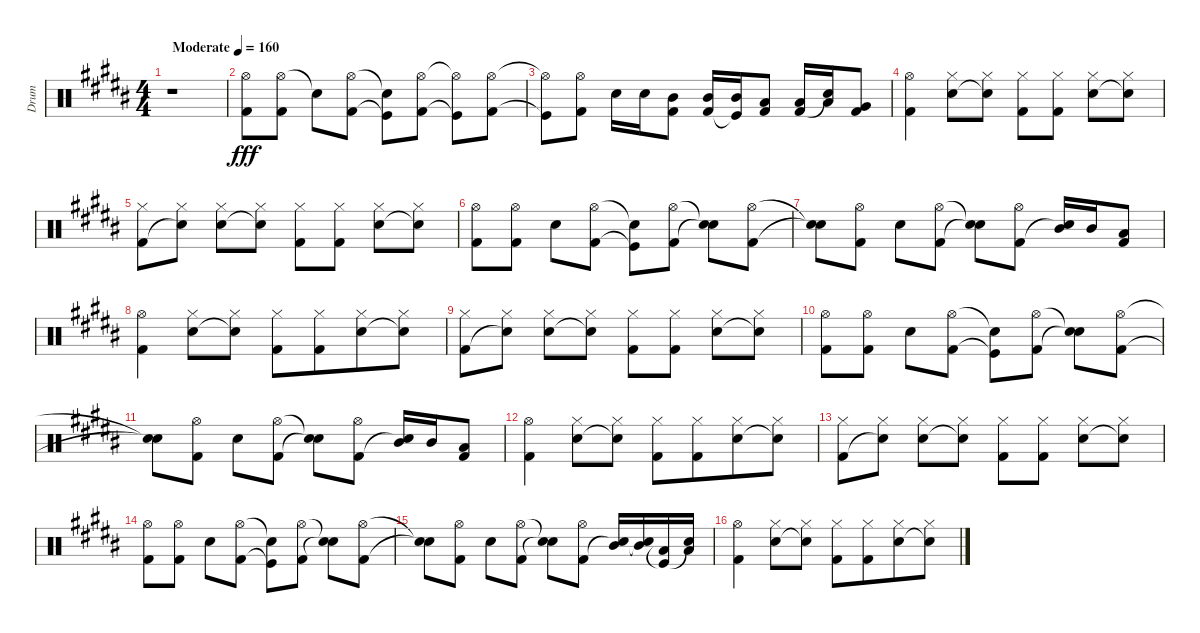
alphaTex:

\track ("Drum" "Drum") {instrument percussion}
\staff {score}
\articulation defaults
\ts (4 4)
\tempo (160 "Moderate")
\clef neutral
\ks b
r.1{dy fff} |
("Hi-Hat (open)" "Kick (hit) 2").8 ("Hi-Hat (open)" "Kick (hit) 2").8 "Snare (hit)"{t}.8 ("Hi-Hat (open)" "Kick (hit) 2").8 ("Snare (hit)"{t} "Kick (hit)"{t}).8 ("Hi-Hat (open)" "Kick (hit) 2").8 ("Hi-Hat (open)"{t} "Kick (hit)"{t}).8 ("Hi-Hat (open)" "Kick (hit) 2").8 |
("Hi-Hat (open)"{t} "Kick (hit)"{t}).8 ("Hi-Hat (open)" "Kick (hit) 2").8 "Snare (hit) 2".16{beam Down} "Snare (hit) 2".16{beam Down} ("Mid Tom (hit)" "Kick (hit) 2").8{beam Down} ("Mid Tom (hit)" "Kick (hit) 2").16 ("Mid Tom (hit)" "Kick (hit)"{t}).16 ("Low Tom (hit)" "Kick (hit) 2").8 ("Low Tom (hit)" "Kick (hit) 2").16 ("Low Tom (hit)" "Snare (hit)"{t}).16 ("Very Low Tom (hit)" "Kick (hit) 2").8 |
("Hi-Hat (open)" "Kick (hit) 2").4 ("Hi-Hat (closed)" "Snare (hit) 2").8 ("Hi-Hat (closed)" "Snare (hit)"{t}).8 ("Hi-Hat (closed)" "Kick (hit) 2").8 ("Hi-Hat (closed)" "Kick (hit) 2").8 ("Hi-Hat (closed)" "Snare (hit) 2").8 ("Hi-Hat (closed)" "Snare (hit)"{t}).8 |
("Hi-Hat (closed)" "Kick (hit) 2").8 ("Hi-Hat (closed)" "Snare (hit)"{t}).8 ("Hi-Hat (closed)" "Snare (hit) 2").8 ("Hi-Hat (closed)" "Snare (hit)"{t}).8 ("Hi-Hat (closed)" "Kick (hit) 2").8 ("Hi-Hat (closed)" "Kick (hit) 2").8 ("Hi-Hat (closed)" "Snare (hit) 2").8 ("Hi-Hat (closed)" "Snare (hit)"{t}).8 |
("Hi-Hat (open)" "Kick (hit) 2").8 ("Hi-Hat (open)" "Kick (hit) 2").8 "Snare (hit) 2".8 ("Hi-Hat (open)" "Kick (hit) 2").8 ("Snare (hit)"{t} "Kick (hit)"{t}).8 ("Hi-Hat (open)" "Kick (hit) 2").8 ("Snare (hit)"{t} "Snare (hit)"{t}).8 ("Hi-Hat (open)" "Kick (hit) 2").8 |
("Snare (hit)"{t} "Snare (hit)"{t}).8 ("Hi-Hat (open)" "Kick (hit) 2").8 "Snare (hit) 2".8 ("Hi-Hat (open)" "Kick (hit) 2").8 ("Snare (hit)"{t} "Snare (hit)"{t}).8 ("Hi-Hat (open)" "Kick (hit) 2").8 ("Mid Tom (hit)" "Snare (hit)"{t}).16 "Mid Tom (hit)".16 ("Low Tom (hit)" "Kick (hit) 2").8 |
("Hi-Hat (open)" "Kick (hit) 2").4 ("Hi-Hat (closed)" "Snare (hit) 2").8 ("Hi-Hat (closed)" "Snare (hit)"{t}).8 ("Hi-Hat (closed)" "Kick (hit) 2").8 ("Hi-Hat (closed)" "Kick (hit) 2").8{beam merge} ("Hi-Hat (closed)" "Snare (hit) 2").8 ("Hi-Hat (closed)" "Snare (hit)"{t}).8 |
("Hi-Hat (closed)" "Kick (hit) 2").8 ("Hi-Hat (closed)" "Snare (hit)"{t}).8 ("Hi-Hat (closed)" "Snare (hit) 2").8 ("Hi-Hat (closed)" "Snare (hit)"{t}).8 ("Hi-Hat (closed)" "Kick (hit) 2").8 ("Hi-Hat (closed)" "Kick (hit) 2").8 ("Hi-Hat (closed)" "Snare (hit) 2").8 ("Hi-Hat (closed)" "Snare (hit)"{t}).8 |
("Hi-Hat (open)" "Kick (hit) 2").8 ("Hi-Hat (open)" "Kick (hit) 2").8 "Snare (hit) 2".8 ("Hi-Hat (open)" "Kick (hit) 2").8 ("Snare (hit)"{t} "Kick (hit)"{t}).8 ("Hi-Hat (open)" "Kick (hit) 2").8 ("Snare (hit)"{t} "Snare (hit)"{t}).8 ("Hi-Hat (open)" "Kick (hit) 2").8 |
("Snare (hit)"{t} "Snare (hit)"{t}).8 ("Hi-Hat (open)" "Kick (hit) 2").8 "Snare (hit) 2".8 ("Hi-Hat (open)" "Kick (hit) 2").8 ("Snare (hit)"{t} "Snare (hit)"{t}).8 ("Hi-Hat (open)" "Kick (hit) 2").8 ("Mid Tom (hit)" "Snare (hit)"{t}).16 "Mid Tom (hit)".16 ("Low Tom (hit)" "Kick (hit) 2").8 |
("Hi-Hat (open)" "Kick (hit) 2").4 ("Hi-Hat (closed)" "Snare (hit) 2").8 ("Hi-Hat (closed)" "Snare (hit)"{t}).8 ("Hi-Hat (closed)" "Kick (hit) 2").8 ("Hi-Hat (closed)" "Kick (hit) 2").8{beam merge} ("Hi-Hat (closed)" "Snare (hit) 2").8 ("Hi-Hat (closed)" "Snare (hit)"{t}).8 |
("Hi-Hat (closed)" "Kick (hit) 2").8 ("Hi-Hat (closed)" "Snare (hit)"{t}).8 ("Hi-Hat (closed)" "Snare (hit) 2").8 ("Hi-Hat (closed)" "Snare (hit)"{t}).8 ("Hi-Hat (closed)" "Kick (hit) 2").8 ("Hi-Hat (closed)" "Kick (hit) 2").8 ("Hi-Hat (closed)" "Snare (hit) 2").8 ("Hi-Hat (closed)" "Snare (hit)"{t}).8 |
("Hi-Hat (open)" "Kick (hit) 2").8 ("Hi-Hat (open)" "Kick (hit) 2").8 "Snare (hit) 2".8 ("Hi-Hat (open)" "Kick (hit) 2").8 ("Snare (hit)"{t} "Kick (hit)"{t}).8 ("Hi-Hat (open)" "Kick (hit) 2").8 ("Snare (hit)"{t} "Snare (hit)"{t}).8 ("Hi-Hat (open)" "Kick (hit) 2").8 |
("Snare (hit)"{t} "Snare (hit)"{t}).8 ("Hi-Hat (open)" "Kick (hit) 2").8 "Snare (hit) 2".8 ("Hi-Hat (open)" "Kick (hit) 2").8 ("Snare (hit)"{t} "Snare (hit)"{t}).8 ("Hi-Hat (open)" "Kick (hit) 2").8 ("Mid Tom (hit)" "Snare (hit)"{t}).16 ("Mid Tom (hit)" "Snare (hit)"{t}).16 ("Low Tom (hit)" "Kick (hit)"{t}).16 ("Low Tom (hit)" "Snare (hit)"{t}).16 |
("Hi-Hat (open)" "Kick (hit) 2").4 ("Hi-Hat (closed)" "Snare (hit) 2").8 ("Hi-Hat (closed)" "Snare (hit)"{t}).8 ("Hi-Hat (closed)" "Kick (hit) 2").8 ("Hi-Hat (closed)" "Kick (hit) 2").8{beam merge} ("Hi-Hat (closed)" "Snare (hit) 2").8 ("Hi-Hat (closed)" "Snare (hit)"{t}).8
